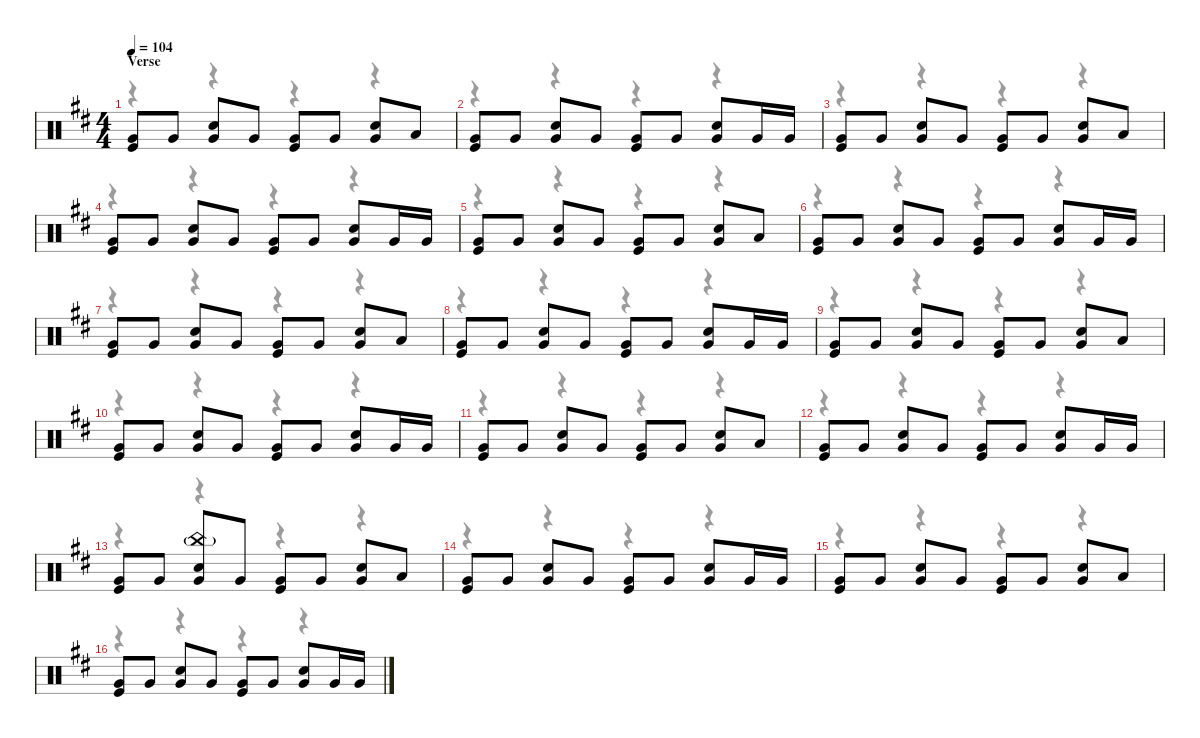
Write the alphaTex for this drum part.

\defaultSystemsLayout 4
\hideDynamics
\bracketExtendMode nobrackets
\singleTrackTrackNamePolicy hidden
\multiTrackTrackNamePolicy hidden
\firstSystemTrackNameMode fullname
\otherSystemsTrackNameOrientation horizontal
\track ("Drums" "drm.") {instrument percussion}
\staff {score}
\articulation defaults
\voice
\ts (4 4)
\section ("" "Verse")
\tempo 104
\clef neutral
\ks bminor
("Very Low Tom (hit)"{acc forcenatural} "Kick (hit)"{acc forcenatural}).8{dy mp beam Up} "Very Low Tom (hit)"{acc forcenatural}.8{beam Up} ("Very Low Tom (hit)"{acc forcenatural} "Snare (hit) 2"{acc forcenatural}).8{beam Up} "Very Low Tom (hit)"{acc forcenatural}.8{beam Up} ("Very Low Tom (hit)"{acc forcenatural} "Kick (hit)"{acc forcenatural}).8{beam Up} "Very Low Tom (hit)"{acc forcenatural}.8{beam Up} ("Very Low Tom (hit)"{acc forcenatural} "Snare (hit) 2"{acc forcenatural}).8{beam Up} "Low Tom (hit)"{acc forcenatural}.8{beam Up} |
("Very Low Tom (hit)"{acc forcenatural} "Kick (hit)"{acc forcenatural}).8{beam Up} "Very Low Tom (hit)"{acc forcenatural}.8{beam Up} ("Very Low Tom (hit)"{acc forcenatural} "Snare (hit) 2"{acc forcenatural}).8{beam Up} "Very Low Tom (hit)"{acc forcenatural}.8{beam Up} ("Very Low Tom (hit)"{acc forcenatural} "Kick (hit)"{acc forcenatural}).8{beam Up} "Very Low Tom (hit)"{acc forcenatural}.8{beam Up} ("Very Low Tom (hit)"{acc forcenatural} "Snare (hit) 2"{acc forcenatural}).8{beam Up} "Very Low Tom (hit)"{acc forcenatural}.16{beam Up} "Very Low Tom (hit)"{acc forcenatural}.16{beam Up} |
("Very Low Tom (hit)"{acc forcenatural} "Kick (hit)"{acc forcenatural}).8{beam Up} "Very Low Tom (hit)"{acc forcenatural}.8{beam Up} ("Very Low Tom (hit)"{acc forcenatural} "Snare (hit) 2"{acc forcenatural}).8{beam Up} "Very Low Tom (hit)"{acc forcenatural}.8{beam Up} ("Very Low Tom (hit)"{acc forcenatural} "Kick (hit)"{acc forcenatural}).8{beam Up} "Very Low Tom (hit)"{acc forcenatural}.8{beam Up} ("Very Low Tom (hit)"{acc forcenatural} "Snare (hit) 2"{acc forcenatural}).8{beam Up} "Low Tom (hit)"{acc forcenatural}.8{beam Up} |
("Very Low Tom (hit)"{acc forcenatural} "Kick (hit)"{acc forcenatural}).8{beam Up} "Very Low Tom (hit)"{acc forcenatural}.8{beam Up} ("Very Low Tom (hit)"{acc forcenatural} "Snare (hit) 2"{acc forcenatural}).8{beam Up} "Very Low Tom (hit)"{acc forcenatural}.8{beam Up} ("Very Low Tom (hit)"{acc forcenatural} "Kick (hit)"{acc forcenatural}).8{beam Up} "Very Low Tom (hit)"{acc forcenatural}.8{beam Up} ("Very Low Tom (hit)"{acc forcenatural} "Snare (hit) 2"{acc forcenatural}).8{beam Up} "Very Low Tom (hit)"{acc forcenatural}.16{beam Up} "Very Low Tom (hit)"{acc forcenatural}.16{beam Up} |
("Very Low Tom (hit)"{acc forcenatural} "Kick (hit)"{acc forcenatural}).8{beam Up} "Very Low Tom (hit)"{acc forcenatural}.8{beam Up} ("Very Low Tom (hit)"{acc forcenatural} "Snare (hit) 2"{acc forcenatural}).8{beam Up} "Very Low Tom (hit)"{acc forcenatural}.8{beam Up} ("Very Low Tom (hit)"{acc forcenatural} "Kick (hit)"{acc forcenatural}).8{beam Up} "Very Low Tom (hit)"{acc forcenatural}.8{beam Up} ("Very Low Tom (hit)"{acc forcenatural} "Snare (hit) 2"{acc forcenatural}).8{beam Up} "Low Tom (hit)"{acc forcenatural}.8{beam Up} |
("Very Low Tom (hit)"{acc forcenatural} "Kick (hit)"{acc forcenatural}).8{beam Up} "Very Low Tom (hit)"{acc forcenatural}.8{beam Up} ("Very Low Tom (hit)"{acc forcenatural} "Snare (hit) 2"{acc forcenatural}).8{beam Up} "Very Low Tom (hit)"{acc forcenatural}.8{beam Up} ("Very Low Tom (hit)"{acc forcenatural} "Kick (hit)"{acc forcenatural}).8{beam Up} "Very Low Tom (hit)"{acc forcenatural}.8{beam Up} ("Very Low Tom (hit)"{acc forcenatural} "Snare (hit) 2"{acc forcenatural}).8{beam Up} "Very Low Tom (hit)"{acc forcenatural}.16{beam Up} "Very Low Tom (hit)"{acc forcenatural}.16{beam Up} |
("Very Low Tom (hit)"{acc forcenatural} "Kick (hit)"{acc forcenatural}).8{beam Up} "Very Low Tom (hit)"{acc forcenatural}.8{beam Up} ("Very Low Tom (hit)"{acc forcenatural} "Snare (hit) 2"{acc forcenatural}).8{beam Up} "Very Low Tom (hit)"{acc forcenatural}.8{beam Up} ("Very Low Tom (hit)"{acc forcenatural} "Kick (hit)"{acc forcenatural}).8{beam Up} "Very Low Tom (hit)"{acc forcenatural}.8{beam Up} ("Very Low Tom (hit)"{acc forcenatural} "Snare (hit) 2"{acc forcenatural}).8{beam Up} "Low Tom (hit)"{acc forcenatural}.8{beam Up} |
("Very Low Tom (hit)"{acc forcenatural} "Kick (hit)"{acc forcenatural}).8{beam Up} "Very Low Tom (hit)"{acc forcenatural}.8{beam Up} ("Very Low Tom (hit)"{acc forcenatural} "Snare (hit) 2"{acc forcenatural}).8{beam Up} "Very Low Tom (hit)"{acc forcenatural}.8{beam Up} ("Very Low Tom (hit)"{acc forcenatural} "Kick (hit)"{acc forcenatural}).8{beam Up} "Very Low Tom (hit)"{acc forcenatural}.8{beam Up} ("Very Low Tom (hit)"{acc forcenatural} "Snare (hit) 2"{acc forcenatural}).8{beam Up} "Very Low Tom (hit)"{acc forcenatural}.16{beam Up} "Very Low Tom (hit)"{acc forcenatural}.16{beam Up} |
("Very Low Tom (hit)"{acc forcenatural} "Kick (hit)"{acc forcenatural}).8{beam Up} "Very Low Tom (hit)"{acc forcenatural}.8{beam Up} ("Very Low Tom (hit)"{acc forcenatural} "Snare (hit) 2"{acc forcenatural}).8{beam Up} "Very Low Tom (hit)"{acc forcenatural}.8{beam Up} ("Very Low Tom (hit)"{acc forcenatural} "Kick (hit)"{acc forcenatural}).8{beam Up} "Very Low Tom (hit)"{acc forcenatural}.8{beam Up} ("Very Low Tom (hit)"{acc forcenatural} "Snare (hit) 2"{acc forcenatural}).8{beam Up} "Low Tom (hit)"{acc forcenatural}.8{beam Up} |
("Very Low Tom (hit)"{acc forcenatural} "Kick (hit)"{acc forcenatural}).8{beam Up} "Very Low Tom (hit)"{acc forcenatural}.8{beam Up} ("Very Low Tom (hit)"{acc forcenatural} "Snare (hit) 2"{acc forcenatural}).8{beam Up} "Very Low Tom (hit)"{acc forcenatural}.8{beam Up} ("Very Low Tom (hit)"{acc forcenatural} "Kick (hit)"{acc forcenatural}).8{beam Up} "Very Low Tom (hit)"{acc forcenatural}.8{beam Up} ("Very Low Tom (hit)"{acc forcenatural} "Snare (hit) 2"{acc forcenatural}).8{beam Up} "Very Low Tom (hit)"{acc forcenatural}.16{beam Up} "Very Low Tom (hit)"{acc forcenatural}.16{beam Up} |
("Very Low Tom (hit)"{acc forcenatural} "Kick (hit)"{acc forcenatural}).8{beam Up} "Very Low Tom (hit)"{acc forcenatural}.8{beam Up} ("Very Low Tom (hit)"{acc forcenatural} "Snare (hit) 2"{acc forcenatural}).8{beam Up} "Very Low Tom (hit)"{acc forcenatural}.8{beam Up} ("Very Low Tom (hit)"{acc forcenatural} "Kick (hit)"{acc forcenatural}).8{beam Up} "Very Low Tom (hit)"{acc forcenatural}.8{beam Up} ("Very Low Tom (hit)"{acc forcenatural} "Snare (hit) 2"{acc forcenatural}).8{beam Up} "Low Tom (hit)"{acc forcenatural}.8{beam Up} |
("Very Low Tom (hit)"{acc forcenatural} "Kick (hit)"{acc forcenatural}).8{beam Up} "Very Low Tom (hit)"{acc forcenatural}.8{beam Up} ("Very Low Tom (hit)"{acc forcenatural} "Snare (hit) 2"{acc forcenatural}).8{beam Up} "Very Low Tom (hit)"{acc forcenatural}.8{beam Up} ("Very Low Tom (hit)"{acc forcenatural} "Kick (hit)"{acc forcenatural}).8{beam Up} "Very Low Tom (hit)"{acc forcenatural}.8{beam Up} ("Very Low Tom (hit)"{acc forcenatural} "Snare (hit) 2"{acc forcenatural}).8{beam Up} "Very Low Tom (hit)"{acc forcenatural}.16{beam Up} "Very Low Tom (hit)"{acc forcenatural}.16{beam Up} |
("Very Low Tom (hit)"{acc forcenatural} "Kick (hit)"{acc forcenatural}).8{beam Up} "Very Low Tom (hit)"{acc forcenatural}.8{beam Up} ("China (hit)"{g acc forcenatural} "Very Low Tom (hit)"{acc forcenatural} "Snare (hit) 2"{acc forcenatural}).8{beam Up} "Very Low Tom (hit)"{acc forcenatural}.8{beam Up} ("Very Low Tom (hit)"{acc forcenatural} "Kick (hit)"{acc forcenatural}).8{beam Up} "Very Low Tom (hit)"{acc forcenatural}.8{beam Up} ("Very Low Tom (hit)"{acc forcenatural} "Snare (hit) 2"{acc forcenatural}).8{beam Up} "Low Tom (hit)"{acc forcenatural}.8{beam Up} |
("Very Low Tom (hit)"{acc forcenatural} "Kick (hit)"{acc forcenatural}).8{beam Up} "Very Low Tom (hit)"{acc forcenatural}.8{beam Up} ("Very Low Tom (hit)"{acc forcenatural} "Snare (hit) 2"{acc forcenatural}).8{beam Up} "Very Low Tom (hit)"{acc forcenatural}.8{beam Up} ("Very Low Tom (hit)"{acc forcenatural} "Kick (hit)"{acc forcenatural}).8{beam Up} "Very Low Tom (hit)"{acc forcenatural}.8{beam Up} ("Very Low Tom (hit)"{acc forcenatural} "Snare (hit) 2"{acc forcenatural}).8{beam Up} "Very Low Tom (hit)"{acc forcenatural}.16{beam Up} "Very Low Tom (hit)"{acc forcenatural}.16{beam Up} |
("Very Low Tom (hit)"{acc forcenatural} "Kick (hit)"{acc forcenatural}).8{beam Up} "Very Low Tom (hit)"{acc forcenatural}.8{beam Up} ("Very Low Tom (hit)"{acc forcenatural} "Snare (hit) 2"{acc forcenatural}).8{beam Up} "Very Low Tom (hit)"{acc forcenatural}.8{beam Up} ("Very Low Tom (hit)"{acc forcenatural} "Kick (hit)"{acc forcenatural}).8{beam Up} "Very Low Tom (hit)"{acc forcenatural}.8{beam Up} ("Very Low Tom (hit)"{acc forcenatural} "Snare (hit) 2"{acc forcenatural}).8{beam Up} "Low Tom (hit)"{acc forcenatural}.8{beam Up} |
("Very Low Tom (hit)"{acc forcenatural} "Kick (hit)"{acc forcenatural}).8{beam Up} "Very Low Tom (hit)"{acc forcenatural}.8{beam Up} ("Very Low Tom (hit)"{acc forcenatural} "Snare (hit) 2"{acc forcenatural}).8{beam Up} "Very Low Tom (hit)"{acc forcenatural}.8{beam Up} ("Very Low Tom (hit)"{acc forcenatural} "Kick (hit)"{acc forcenatural}).8{beam Up} "Very Low Tom (hit)"{acc forcenatural}.8{beam Up} ("Very Low Tom (hit)"{acc forcenatural} "Snare (hit) 2"{acc forcenatural}).8{beam Up} "Very Low Tom (hit)"{acc forcenatural}.16{beam Up} "Very Low Tom (hit)"{acc forcenatural}.16{beam Up}
\voice
\clef neutral
\ottava regular
\simile none
\ks bminor
r.4{dy mf beam Down} r.4{beam Down} r.4{beam Down} r.4{beam Down} |
r.4{beam Down} r.4{beam Down} r.4{beam Down} r.4{beam Down} |
r.4{beam Down} r.4{beam Down} r.4{beam Down} r.4{beam Down} |
r.4{beam Down} r.4{beam Down} r.4{beam Down} r.4{beam Down} |
r.4{beam Down} r.4{beam Down} r.4{beam Down} r.4{beam Down} |
r.4{beam Down} r.4{beam Down} r.4{beam Down} r.4{beam Down} |
r.4{beam Down} r.4{beam Down} r.4{beam Down} r.4{beam Down} |
r.4{beam Down} r.4{beam Down} r.4{beam Down} r.4{beam Down} |
r.4{beam Down} r.4{beam Down} r.4{beam Down} r.4{beam Down} |
r.4{beam Down} r.4{beam Down} r.4{beam Down} r.4{beam Down} |
r.4{beam Down} r.4{beam Down} r.4{beam Down} r.4{beam Down} |
r.4{beam Down} r.4{beam Down} r.4{beam Down} r.4{beam Down} |
r.4{beam Down} r.4{beam Down} r.4{beam Down} r.4{beam Down} |
r.4{beam Down} r.4{beam Down} r.4{beam Down} r.4{beam Down} |
r.4{beam Down} r.4{beam Down} r.4{beam Down} r.4{beam Down} |
r.4{beam Down} r.4{beam Down} r.4{beam Down} r.4{beam Down}
